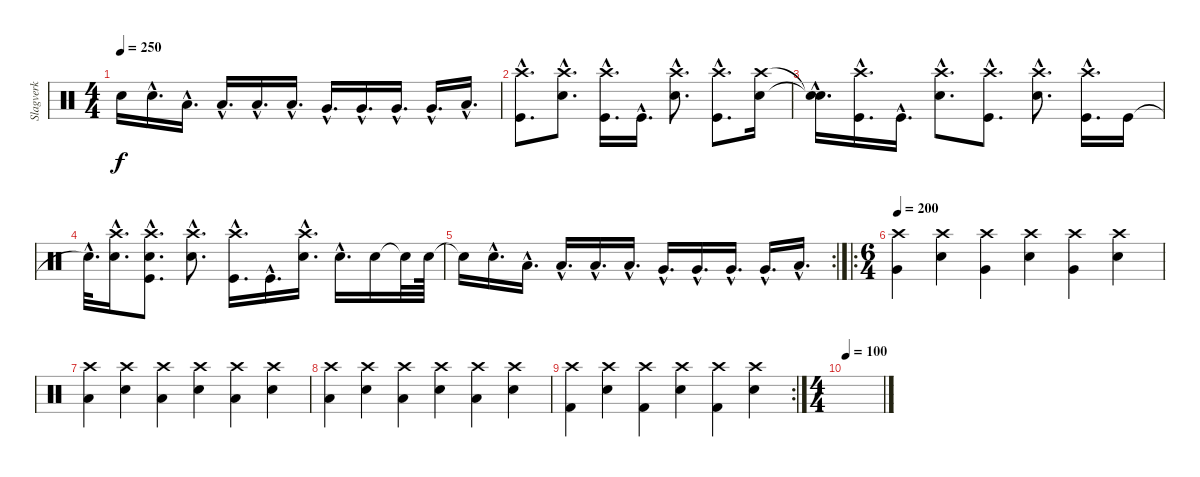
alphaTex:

\track ("Slagverk" "Slagverk") {instrument percussion}
\staff {score}
\articulation defaults
\ts (4 4)
\tempo 250
\clef neutral
\ks c "Snare (hit)"{t}.16{dy f} "Electric Snare (hit)"{hac}.16{d} "Low Tom (hit)"{hac}.16{d} "Low Tom (hit)"{hac}.16{d} "Low Tom (hit)"{hac}.16{d} "Low Tom (hit)"{hac}.16{d} "Very Low Tom (hit)"{hac}.16{d} "Very Low Tom (hit)"{hac}.16{d} "Very Low Tom (hit)"{hac}.16{d} "Very Low Tom (hit)"{hac}.16{d} "Low Floor Tom (hit)"{hac}.16{d}
|
("Crash high (hit)"{hac} "Kick (hit)"{hac}).8{d} ("Crash high (hit)"{hac} "Snare (hit) 2"{hac}).8{d} ("Crash high (hit)"{hac} "Kick (hit)"{hac}).16{d} "Kick (hit)"{hac}.16{d} ("Crash high (hit)"{hac} "Snare (hit) 2"{hac}).8{d} ("Crash high (hit)"{hac} "Kick (hit)"{hac}).8{d} ("Crash high (hit)" "Snare (hit) 2").16 |
("Snare (hit)"{hac t} "Snare (hit)"{hac t}).16{d} ("Crash high (hit)"{hac} "Kick (hit)"{hac}).16{d} "Kick (hit)"{hac}.16{d} ("Crash high (hit)"{hac} "Snare (hit) 2"{hac}).8{d} ("Crash high (hit)"{hac} "Kick (hit)"{hac}).8{d} ("Crash high (hit)"{hac} "Snare (hit) 2"{hac}).8{d} ("Crash high (hit)"{hac} "Kick (hit)"{hac}).16{d} "Kick (hit)".16 |
"Snare (hit)"{hac t}.32{d} ("Crash high (hit)"{hac} "Snare (hit) 2"{hac}).16{d} ("Crash high (hit)"{hac} "Kick (hit)"{hac} "Snare (hit)"{hac}).8{d} ("Crash high (hit)"{hac} "Snare (hit) 2"{hac}).8{d} ("Crash high (hit)"{hac} "Kick (hit)"{hac}).16{d} "Kick (hit)"{hac}.16{d} ("Crash high (hit)"{hac} "Snare (hit) 2"{hac}).16{d} "Electric Snare (hit)"{hac}.16{d} "Electric Snare (hit)".16 "Snare (hit)"{t}.32 "Electric Snare (hit)".64 |
\rc 2 "Snare (hit)"{t}.16 "Electric Snare (hit)"{hac}.16{d} "Low Tom (hit)"{hac}.16{d} "Low Tom (hit)"{hac}.16{d} "Low Tom (hit)"{hac}.16{d} "Low Tom (hit)"{hac}.16{d} "Very Low Tom (hit)"{hac}.16{d} "Very Low Tom (hit)"{hac}.16{d} "Very Low Tom (hit)"{hac}.16{d} "Very Low Tom (hit)"{hac}.16{d} "Low Floor Tom (hit)"{hac}.16{d}
|
\ro
\ts (6 4)
\tempo 200
("Crash high (hit)" "Very Low Tom (hit)").4 ("Crash high (hit)" "Electric Snare (hit)").4 ("Crash high (hit)" "Very Low Tom (hit)").4 ("Crash high (hit)" "Electric Snare (hit)").4 ("Crash high (hit)" "Very Low Tom (hit)").4 ("Crash high (hit)" "Electric Snare (hit)").4 |
("Crash high (hit)" "Low Tom (hit)").4 ("Crash high (hit)" "Electric Snare (hit)").4 ("Crash high (hit)" "Low Tom (hit)").4 ("Crash high (hit)" "Electric Snare (hit)").4 ("Crash high (hit)" "Low Tom (hit)").4 ("Crash high (hit)" "Electric Snare (hit)").4 |
("Crash high (hit)" "Low Floor Tom (hit)").4 ("Crash high (hit)" "Electric Snare (hit)").4 ("Crash high (hit)" "Low Floor Tom (hit)").4 ("Crash high (hit)" "Electric Snare (hit)").4 ("Crash high (hit)" "Low Floor Tom (hit)").4 ("Crash high (hit)" "Electric Snare (hit)").4 |
\rc 2
("Crash high (hit)" "Kick (hit) 2").4 ("Crash high (hit)" "Electric Snare (hit)").4 ("Crash high (hit)" "Kick (hit) 2").4 ("Crash high (hit)" "Electric Snare (hit)").4 ("Crash high (hit)" "Kick (hit) 2").4 ("Crash high (hit)" "Electric Snare (hit)").4 |
\ts (4 4)
\tempo 100
